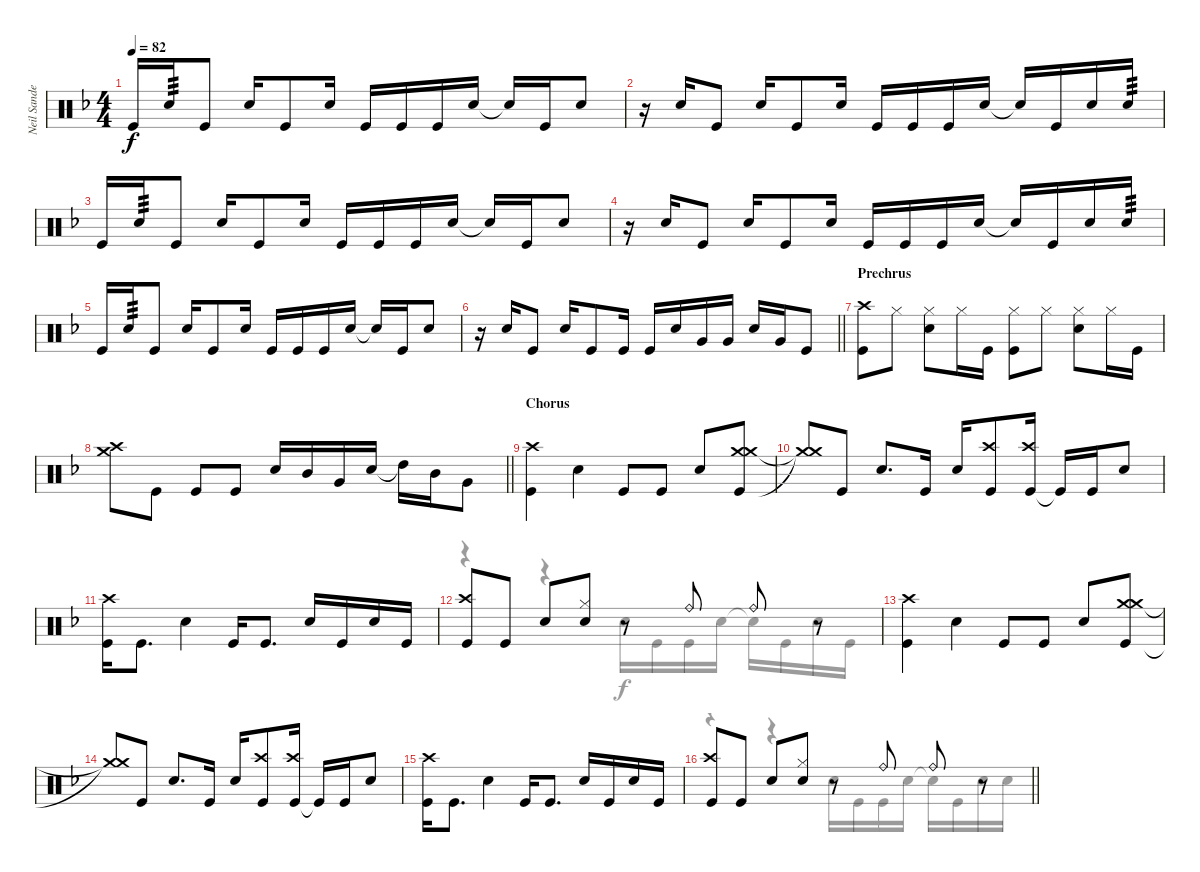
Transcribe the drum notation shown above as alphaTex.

\track ("Neil Sanderson" "Neil Sande") {instrument percussion}
\staff {score}
\articulation defaults
\voice
\ts (4 4)
\tempo 82
\clef neutral
\ks f "Kick (hit)".16{dy f} "Snare (hit) 2".16{tp 3} "Kick (hit)".8 "Snare (hit) 2".16 "Kick (hit)".8 "Snare (hit) 2".16 "Kick (hit)".16 "Kick (hit)".16 "Kick (hit)".16 "Snare (hit) 2".16 "Snare (hit) 2"{t}.16 "Kick (hit)".16 "Snare (hit) 2".8
|
r.16 "Snare (hit) 2".16 "Kick (hit)".8 "Snare (hit) 2".16 "Kick (hit)".8 "Snare (hit) 2".16 "Kick (hit)".16 "Kick (hit)".16 "Kick (hit)".16 "Snare (hit) 2".16 "Snare (hit) 2"{t}.16 "Kick (hit)".16 "Snare (hit) 2".16 "Snare (hit) 2".16{tp 3} |
"Kick (hit)".16 "Snare (hit) 2".16{tp 3} "Kick (hit)".8 "Snare (hit) 2".16 "Kick (hit)".8 "Snare (hit) 2".16 "Kick (hit)".16 "Kick (hit)".16 "Kick (hit)".16 "Snare (hit) 2".16 "Snare (hit) 2"{t}.16 "Kick (hit)".16 "Snare (hit) 2".8 |
r.16 "Snare (hit) 2".16 "Kick (hit)".8 "Snare (hit) 2".16 "Kick (hit)".8 "Snare (hit) 2".16 "Kick (hit)".16 "Kick (hit)".16 "Kick (hit)".16 "Snare (hit) 2".16 "Snare (hit) 2"{t}.16 "Kick (hit)".16 "Snare (hit) 2".16 "Snare (hit) 2".16{tp 3} |
"Kick (hit)".16 "Snare (hit) 2".16{tp 3} "Kick (hit)".8 "Snare (hit) 2".16 "Kick (hit)".8 "Snare (hit) 2".16 "Kick (hit)".16 "Kick (hit)".16 "Kick (hit)".16 "Snare (hit) 2".16 "Snare (hit) 2"{t}.16 "Kick (hit)".16 "Snare (hit) 2".8 |
\barLineRight lightlight
r.16 "Snare (hit) 2".16 "Kick (hit)".8 "Snare (hit) 2".16 "Kick (hit)".8 "Kick (hit)".16 "Kick (hit)".16{beam Up} "Snare (hit) 2".16{beam Up} "Very Low Tom (hit)".16 "Very Low Tom (hit)".16{beam Up} "Snare (hit) 2".16 "Very Low Tom (hit)".16 "Kick (hit)".8 |
\section ("" "Prechrus")
("Crash high (hit)" "Kick (hit)").8 "Hi-Hat (closed)".8 ("Snare (hit) 2" "Hi-Hat (closed)").8 "Hi-Hat (closed)".16 "Kick (hit)".16 ("Kick (hit)" "Hi-Hat (closed)").8 "Hi-Hat (closed)".8 ("Snare (hit) 2" "Hi-Hat (closed)").8 "Hi-Hat (closed)".16 "Kick (hit)".16 |
\barLineRight lightlight
("Crash high (hit)" "Crash medium (hit)").8 "Kick (hit)".8 "Kick (hit)".8 "Kick (hit)".8 "Snare (hit) 2".16 "Mid Tom (hit)".16 "Very Low Tom (hit)".16 "Snare (hit) 2".16 "High Tom (hit)"{t}.16 "Mid Tom (hit)".16 "Very Low Tom (hit)".8 |
\section ("" "Chorus")
("Crash high (hit)" "Kick (hit)").4 "Snare (hit) 2".4 "Kick (hit)".8 "Kick (hit)".8 "Snare (hit) 2".8{beam Up} ("Kick (hit)" "Crash medium (hit)" "Crash medium (hit)").8{beam Up} |
("Crash medium (hit)"{t} "Crash medium (hit)"{t}).8{beam Up} "Kick (hit)".8{beam Up} "Snare (hit) 2".8{d} "Kick (hit)".16 "Snare (hit) 2".16{beam Up} ("Kick (hit)" "Crash high (hit)").8{beam Up} ("Kick (hit)" "Crash high (hit)").16{beam Up} "Kick (hit)"{t}.16 "Kick (hit)".16 "Snare (hit) 2".8 |
("Kick (hit)" "Crash high (hit)").16 "Kick (hit)".8{d} "Snare (hit) 2".4 "Kick (hit)".16 "Kick (hit)".8{d} "Snare (hit) 2".16 "Kick (hit)".16 "Snare (hit) 2".16 "Kick (hit)".16 |
("Crash high (hit)" "Kick (hit)").8 "Kick (hit)".8 "Snare (hit) 2".8 ("Snare (hit) 2" "Hi-Hat (closed)").8 r.8 "Ride (bell)".8{beam Up} "Ride (bell)".8{beam Up} r.8 |
("Crash high (hit)" "Kick (hit)").4 "Snare (hit) 2".4 "Kick (hit)".8 "Kick (hit)".8 "Snare (hit) 2".8{beam Up} ("Kick (hit)" "Crash medium (hit)" "Crash medium (hit)").8{beam Up} |
("Crash medium (hit)"{t} "Crash medium (hit)"{t}).8{beam Up} "Kick (hit)".8{beam Up} "Snare (hit) 2".8{d} "Kick (hit)".16 "Snare (hit) 2".16{beam Up} ("Kick (hit)" "Crash high (hit)").8{beam Up} ("Kick (hit)" "Crash high (hit)").16{beam Up} "Kick (hit)"{t}.16 "Kick (hit)".16 "Snare (hit) 2".8 |
("Kick (hit)" "Crash high (hit)").16 "Kick (hit)".8{d} "Snare (hit) 2".4 "Kick (hit)".16 "Kick (hit)".8{d} "Snare (hit) 2".16 "Kick (hit)".16 "Snare (hit) 2".16 "Kick (hit)".16 |
\barLineRight lightlight
("Crash high (hit)" "Kick (hit)").8 "Kick (hit)".8 "Snare (hit) 2".8 ("Snare (hit) 2" "Hi-Hat (closed)").8 r.8 "Ride (bell)".8{beam Up} "Ride (bell)".8{beam Up} r.8
\voice
\clef neutral
\ottava regular
\simile none
\ks f
|
|
|
|
|
\barLineRight lightlight
|
|
\barLineRight lightlight
|
|
|
|
r.4 r.4 "Snare (hit) 2".16{beam Down} "Kick (hit)".16{beam Down} "Kick (hit)".16{beam Down} "Snare (hit) 2".16{beam Down} "Snare (hit) 2"{t}.16{beam Down} "Kick (hit)".16{beam Down} "Snare (hit) 2".16{beam Down} "Kick (hit)".16{beam Down} |
|
|
|
\barLineRight lightlight
r.4 r.4 "Snare (hit) 2".16{beam Down} "Kick (hit)".16{beam Down} "Kick (hit)".16{beam Down} "Snare (hit) 2".16{beam Down} "Snare (hit) 2"{t}.16{beam Down} "Kick (hit)".16{beam Down} "Snare (hit) 2".16{beam Down} "Snare (hit) 2".16{beam Down}
